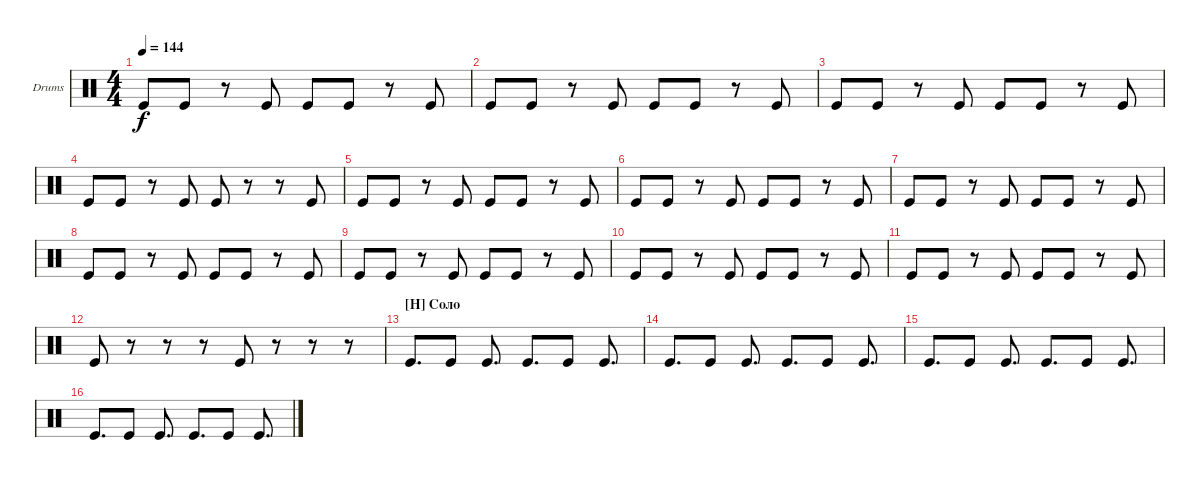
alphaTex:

\defaultSystemsLayout 4
\bracketExtendMode groupsimilarinstruments
\firstSystemTrackNameOrientation horizontal
\otherSystemsTrackNameOrientation horizontal
\track ("Kick" "Drums") {instrument percussion}
\staff {score}
\articulation defaults
\ts (4 4)
\tempo 144
\clef neutral
\ks c "Kick (hit)".8{dy f} "Kick (hit)".8
r.8 "Kick (hit)".8 "Kick (hit)".8 "Kick (hit)".8 r.8 "Kick (hit)".8 |
"Kick (hit)".8 "Kick (hit)".8 r.8 "Kick (hit)".8 "Kick (hit)".8 "Kick (hit)".8 r.8 "Kick (hit)".8 |
"Kick (hit)".8 "Kick (hit)".8 r.8 "Kick (hit)".8 "Kick (hit)".8 "Kick (hit)".8 r.8 "Kick (hit)".8 |
"Kick (hit)".8 "Kick (hit)".8 r.8 "Kick (hit)".8 "Kick (hit)".8 r.8 r.8 "Kick (hit)".8 |
"Kick (hit)".8 "Kick (hit)".8 r.8 "Kick (hit)".8 "Kick (hit)".8 "Kick (hit)".8 r.8 "Kick (hit)".8 |
"Kick (hit)".8 "Kick (hit)".8 r.8 "Kick (hit)".8 "Kick (hit)".8 "Kick (hit)".8 r.8 "Kick (hit)".8 |
"Kick (hit)".8 "Kick (hit)".8 r.8 "Kick (hit)".8 "Kick (hit)".8 "Kick (hit)".8 r.8 "Kick (hit)".8 |
"Kick (hit)".8 "Kick (hit)".8 r.8 "Kick (hit)".8 "Kick (hit)".8 "Kick (hit)".8 r.8 "Kick (hit)".8 |
"Kick (hit)".8 "Kick (hit)".8 r.8 "Kick (hit)".8 "Kick (hit)".8 "Kick (hit)".8 r.8 "Kick (hit)".8 |
"Kick (hit)".8 "Kick (hit)".8 r.8 "Kick (hit)".8 "Kick (hit)".8 "Kick (hit)".8 r.8 "Kick (hit)".8 |
"Kick (hit)".8 "Kick (hit)".8 r.8 "Kick (hit)".8 "Kick (hit)".8 "Kick (hit)".8 r.8 "Kick (hit)".8 |
"Kick (hit)".8 r.8 r.8 r.8 "Kick (hit)".8 r.8 r.8 r.8 |
\section ("H" "Соло")
"Kick (hit)".8{d} "Kick (hit)".8 "Kick (hit)".8{d} "Kick (hit)".8{d} "Kick (hit)".8 "Kick (hit)".8{d} |
"Kick (hit)".8{d} "Kick (hit)".8 "Kick (hit)".8{d} "Kick (hit)".8{d} "Kick (hit)".8 "Kick (hit)".8{d} |
"Kick (hit)".8{d} "Kick (hit)".8 "Kick (hit)".8{d} "Kick (hit)".8{d} "Kick (hit)".8 "Kick (hit)".8{d} |
"Kick (hit)".8{d} "Kick (hit)".8 "Kick (hit)".8{d} "Kick (hit)".8{d} "Kick (hit)".8 "Kick (hit)".8{d}
